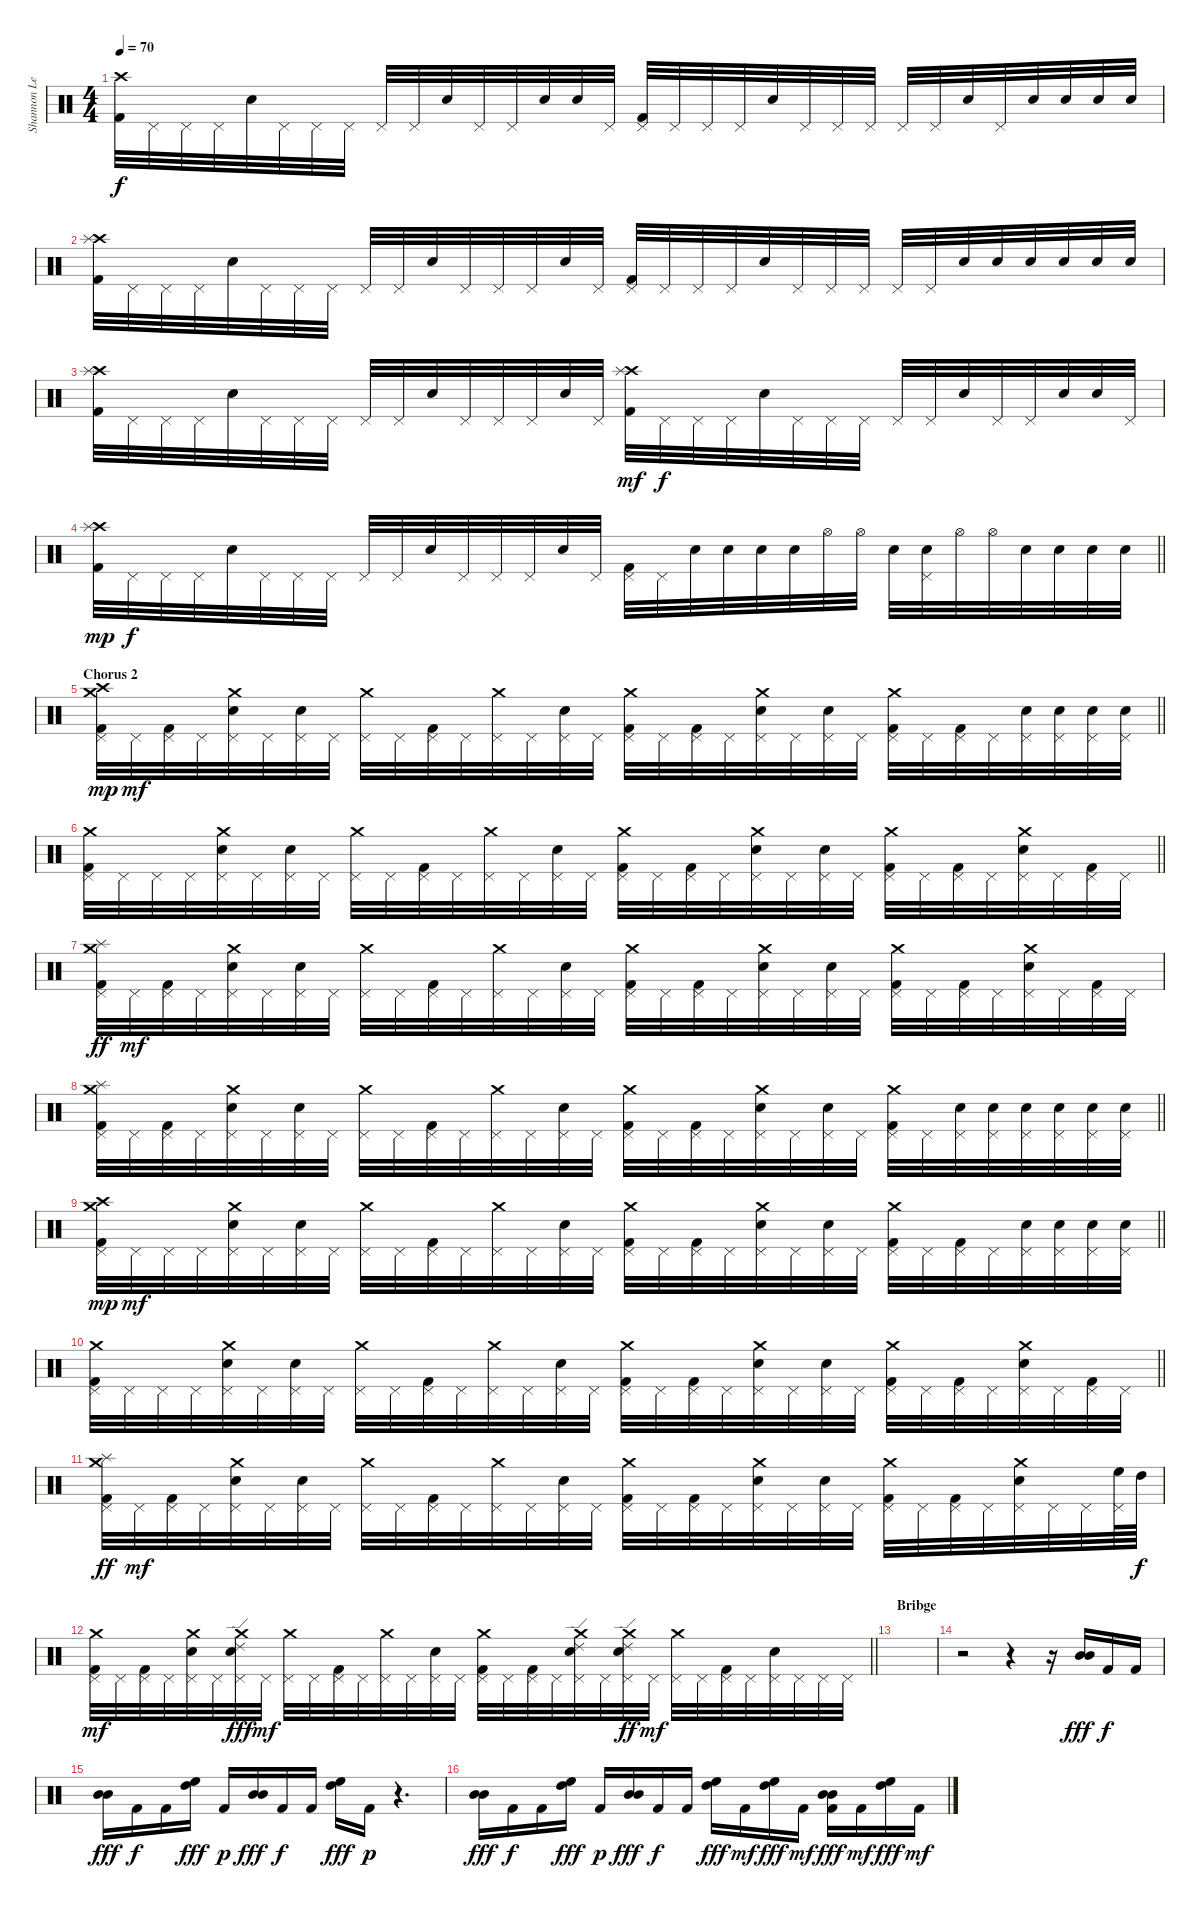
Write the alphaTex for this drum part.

\track ("Shannon Leto - Drums" "Shannon Le") {instrument percussion}
\staff {score}
\articulation defaults
\ts (4 4)
\tempo 70
\clef neutral
\ks c
("Crash high (hit)" "Kick (hit) 2").32{dy f} "Pedal Hi-Hat (hit)".32 "Pedal Hi-Hat (hit)".32 "Pedal Hi-Hat (hit)".32 "Electric Snare (hit)".32 "Pedal Hi-Hat (hit)".32 "Pedal Hi-Hat (hit)".32 "Pedal Hi-Hat (hit)".32 "Pedal Hi-Hat (hit)".32 "Pedal Hi-Hat (hit)".32 "Electric Snare (hit)".32 "Pedal Hi-Hat (hit)".32 "Pedal Hi-Hat (hit)".32 "Electric Snare (hit)".32 "Electric Snare (hit)".32 "Pedal Hi-Hat (hit)".32 ("Pedal Hi-Hat (hit)" "Kick (hit) 2").32 "Pedal Hi-Hat (hit)".32 "Pedal Hi-Hat (hit)".32 "Pedal Hi-Hat (hit)".32 "Electric Snare (hit)".32 "Pedal Hi-Hat (hit)".32 "Pedal Hi-Hat (hit)".32 "Pedal Hi-Hat (hit)".32 "Pedal Hi-Hat (hit)".32 "Pedal Hi-Hat (hit)".32 "Electric Snare (hit)".32 "Pedal Hi-Hat (hit)".32 "Electric Snare (hit)".32 "Electric Snare (hit)".32 "Electric Snare (hit)".32 "Electric Snare (hit)".32 |
("Crash high (hit)" "Splash (hit)" "Kick (hit) 2").32 "Pedal Hi-Hat (hit)".32 "Pedal Hi-Hat (hit)".32 "Pedal Hi-Hat (hit)".32 "Electric Snare (hit)".32 "Pedal Hi-Hat (hit)".32 "Pedal Hi-Hat (hit)".32 "Pedal Hi-Hat (hit)".32 "Pedal Hi-Hat (hit)".32 "Pedal Hi-Hat (hit)".32 "Electric Snare (hit)".32 "Pedal Hi-Hat (hit)".32 "Pedal Hi-Hat (hit)".32 "Pedal Hi-Hat (hit)".32 "Electric Snare (hit)".32 "Pedal Hi-Hat (hit)".32 ("Pedal Hi-Hat (hit)" "Kick (hit) 2").32 "Pedal Hi-Hat (hit)".32 "Pedal Hi-Hat (hit)".32 "Pedal Hi-Hat (hit)".32 "Electric Snare (hit)".32 "Pedal Hi-Hat (hit)".32 "Pedal Hi-Hat (hit)".32 "Pedal Hi-Hat (hit)".32 "Pedal Hi-Hat (hit)".32 "Pedal Hi-Hat (hit)".32 "Electric Snare (hit)".32 "Electric Snare (hit)".32 "Electric Snare (hit)".32 "Electric Snare (hit)".32 "Electric Snare (hit)".32 "Electric Snare (hit)".32 |
("Crash high (hit)" "Splash (hit)" "Kick (hit) 2").32 "Pedal Hi-Hat (hit)".32 "Pedal Hi-Hat (hit)".32 "Pedal Hi-Hat (hit)".32 "Electric Snare (hit)".32 "Pedal Hi-Hat (hit)".32 "Pedal Hi-Hat (hit)".32 "Pedal Hi-Hat (hit)".32 "Pedal Hi-Hat (hit)".32 "Pedal Hi-Hat (hit)".32 "Electric Snare (hit)".32 "Pedal Hi-Hat (hit)".32 "Pedal Hi-Hat (hit)".32 "Pedal Hi-Hat (hit)".32 "Electric Snare (hit)".32 "Pedal Hi-Hat (hit)".32 ("Crash high (hit)" "Splash (hit)" "Kick (hit) 2").32{dy mf} "Pedal Hi-Hat (hit)".32{dy f} "Pedal Hi-Hat (hit)".32 "Pedal Hi-Hat (hit)".32 "Electric Snare (hit)".32 "Pedal Hi-Hat (hit)".32 "Pedal Hi-Hat (hit)".32 "Pedal Hi-Hat (hit)".32 "Pedal Hi-Hat (hit)".32 "Pedal Hi-Hat (hit)".32 "Electric Snare (hit)".32 "Pedal Hi-Hat (hit)".32 "Pedal Hi-Hat (hit)".32 "Electric Snare (hit)".32 "Electric Snare (hit)".32 "Pedal Hi-Hat (hit)".32 |
\barLineRight lightlight
("Crash high (hit)" "Splash (hit)" "Kick (hit) 2").32{dy mp} "Pedal Hi-Hat (hit)".32{dy f} "Pedal Hi-Hat (hit)".32 "Pedal Hi-Hat (hit)".32 "Electric Snare (hit)".32 "Pedal Hi-Hat (hit)".32 "Pedal Hi-Hat (hit)".32 "Pedal Hi-Hat (hit)".32 "Pedal Hi-Hat (hit)".32 "Pedal Hi-Hat (hit)".32 "Electric Snare (hit)".32 "Pedal Hi-Hat (hit)".32 "Pedal Hi-Hat (hit)".32 "Pedal Hi-Hat (hit)".32 "Electric Snare (hit)".32 "Pedal Hi-Hat (hit)".32 ("Pedal Hi-Hat (hit)" "Kick (hit) 2").32 "Pedal Hi-Hat (hit)".32 "Electric Snare (hit)".32 "Electric Snare (hit)".32 "Electric Snare (hit)".32 "Electric Snare (hit)".32 "Hi-Hat (open)".32 "Hi-Hat (open)".32 "Electric Snare (hit)".32 ("Pedal Hi-Hat (hit)" "Electric Snare (hit)").32 "Hi-Hat (open)".32 "Hi-Hat (open)".32 "Electric Snare (hit)".32 "Electric Snare (hit)".32 "Electric Snare (hit)".32 "Electric Snare (hit)".32 |
\section ("" "Chorus 2")
\barLineRight lightlight
("Crash medium (hit)" "Pedal Hi-Hat (hit)" "Crash high (hit)" "Kick (hit) 2").32{dy mp} "Pedal Hi-Hat (hit)".32{dy mf} ("Pedal Hi-Hat (hit)" "Kick (hit) 2").32 "Pedal Hi-Hat (hit)".32 ("Crash medium (hit)" "Pedal Hi-Hat (hit)" "Electric Snare (hit)").32 "Pedal Hi-Hat (hit)".32 ("Pedal Hi-Hat (hit)" "Electric Snare (hit)").32 "Pedal Hi-Hat (hit)".32 ("Crash medium (hit)" "Pedal Hi-Hat (hit)").32 "Pedal Hi-Hat (hit)".32 ("Pedal Hi-Hat (hit)" "Kick (hit) 2").32 "Pedal Hi-Hat (hit)".32 ("Crash medium (hit)" "Pedal Hi-Hat (hit)").32 "Pedal Hi-Hat (hit)".32 ("Pedal Hi-Hat (hit)" "Electric Snare (hit)").32 "Pedal Hi-Hat (hit)".32 ("Crash medium (hit)" "Pedal Hi-Hat (hit)" "Kick (hit) 2").32 "Pedal Hi-Hat (hit)".32 ("Pedal Hi-Hat (hit)" "Kick (hit) 2").32 "Pedal Hi-Hat (hit)".32 ("Crash medium (hit)" "Pedal Hi-Hat (hit)" "Electric Snare (hit)").32 "Pedal Hi-Hat (hit)".32 ("Pedal Hi-Hat (hit)" "Electric Snare (hit)").32 "Pedal Hi-Hat (hit)".32 ("Crash medium (hit)" "Pedal Hi-Hat (hit)" "Kick (hit) 2").32 "Pedal Hi-Hat (hit)".32 ("Pedal Hi-Hat (hit)" "Kick (hit) 2").32 "Pedal Hi-Hat (hit)".32 ("Pedal Hi-Hat (hit)" "Electric Snare (hit)").32 ("Pedal Hi-Hat (hit)" "Electric Snare (hit)").32 ("Pedal Hi-Hat (hit)" "Electric Snare (hit)").32 ("Pedal Hi-Hat (hit)" "Electric Snare (hit)").32 |
\barLineRight lightlight
("Crash medium (hit)" "Pedal Hi-Hat (hit)" "Kick (hit) 2").32 "Pedal Hi-Hat (hit)".32 "Pedal Hi-Hat (hit)".32 "Pedal Hi-Hat (hit)".32 ("Crash medium (hit)" "Pedal Hi-Hat (hit)" "Electric Snare (hit)").32 "Pedal Hi-Hat (hit)".32 ("Pedal Hi-Hat (hit)" "Electric Snare (hit)").32 "Pedal Hi-Hat (hit)".32 ("Crash medium (hit)" "Pedal Hi-Hat (hit)").32 "Pedal Hi-Hat (hit)".32 ("Pedal Hi-Hat (hit)" "Kick (hit) 2").32 "Pedal Hi-Hat (hit)".32 ("Crash medium (hit)" "Pedal Hi-Hat (hit)").32 "Pedal Hi-Hat (hit)".32 ("Pedal Hi-Hat (hit)" "Electric Snare (hit)").32 "Pedal Hi-Hat (hit)".32 ("Crash medium (hit)" "Pedal Hi-Hat (hit)" "Kick (hit) 2").32 "Pedal Hi-Hat (hit)".32 ("Pedal Hi-Hat (hit)" "Kick (hit) 2").32 "Pedal Hi-Hat (hit)".32 ("Crash medium (hit)" "Pedal Hi-Hat (hit)" "Electric Snare (hit)").32 "Pedal Hi-Hat (hit)".32 ("Pedal Hi-Hat (hit)" "Electric Snare (hit)").32 "Pedal Hi-Hat (hit)".32 ("Crash medium (hit)" "Pedal Hi-Hat (hit)" "Kick (hit) 2").32 "Pedal Hi-Hat (hit)".32 ("Pedal Hi-Hat (hit)" "Kick (hit) 2").32 "Pedal Hi-Hat (hit)".32 ("Crash medium (hit)" "Pedal Hi-Hat (hit)" "Electric Snare (hit)").32 "Pedal Hi-Hat (hit)".32 ("Pedal Hi-Hat (hit)" "Kick (hit) 2").32 "Pedal Hi-Hat (hit)".32 |
("Crash medium (hit)" "Pedal Hi-Hat (hit)" "Splash (hit)" "Kick (hit) 2").32{dy ff} "Pedal Hi-Hat (hit)".32{dy mf} ("Pedal Hi-Hat (hit)" "Kick (hit) 2").32 "Pedal Hi-Hat (hit)".32 ("Crash medium (hit)" "Pedal Hi-Hat (hit)" "Electric Snare (hit)").32 "Pedal Hi-Hat (hit)".32 ("Pedal Hi-Hat (hit)" "Electric Snare (hit)").32 "Pedal Hi-Hat (hit)".32 ("Crash medium (hit)" "Pedal Hi-Hat (hit)").32 "Pedal Hi-Hat (hit)".32 ("Pedal Hi-Hat (hit)" "Kick (hit) 2").32 "Pedal Hi-Hat (hit)".32 ("Crash medium (hit)" "Pedal Hi-Hat (hit)").32 "Pedal Hi-Hat (hit)".32 ("Pedal Hi-Hat (hit)" "Electric Snare (hit)").32 "Pedal Hi-Hat (hit)".32 ("Crash medium (hit)" "Pedal Hi-Hat (hit)" "Kick (hit) 2").32 "Pedal Hi-Hat (hit)".32 ("Pedal Hi-Hat (hit)" "Kick (hit) 2").32 "Pedal Hi-Hat (hit)".32 ("Crash medium (hit)" "Pedal Hi-Hat (hit)" "Electric Snare (hit)").32 "Pedal Hi-Hat (hit)".32 ("Pedal Hi-Hat (hit)" "Electric Snare (hit)").32 "Pedal Hi-Hat (hit)".32 ("Crash medium (hit)" "Pedal Hi-Hat (hit)" "Kick (hit) 2").32 "Pedal Hi-Hat (hit)".32 ("Pedal Hi-Hat (hit)" "Kick (hit) 2").32 "Pedal Hi-Hat (hit)".32 ("Crash medium (hit)" "Pedal Hi-Hat (hit)" "Electric Snare (hit)").32 "Pedal Hi-Hat (hit)".32 ("Pedal Hi-Hat (hit)" "Kick (hit) 2").32 "Pedal Hi-Hat (hit)".32 |
\barLineRight lightlight
("Crash medium (hit)" "Pedal Hi-Hat (hit)" "Splash (hit)" "Kick (hit) 2").32 "Pedal Hi-Hat (hit)".32 ("Pedal Hi-Hat (hit)" "Kick (hit) 2").32 "Pedal Hi-Hat (hit)".32 ("Crash medium (hit)" "Pedal Hi-Hat (hit)" "Electric Snare (hit)").32 "Pedal Hi-Hat (hit)".32 ("Pedal Hi-Hat (hit)" "Electric Snare (hit)").32 "Pedal Hi-Hat (hit)".32 ("Crash medium (hit)" "Pedal Hi-Hat (hit)").32 "Pedal Hi-Hat (hit)".32 ("Pedal Hi-Hat (hit)" "Kick (hit) 2").32 "Pedal Hi-Hat (hit)".32 ("Crash medium (hit)" "Pedal Hi-Hat (hit)").32 "Pedal Hi-Hat (hit)".32 ("Pedal Hi-Hat (hit)" "Electric Snare (hit)").32 "Pedal Hi-Hat (hit)".32 ("Crash medium (hit)" "Pedal Hi-Hat (hit)" "Kick (hit) 2").32 "Pedal Hi-Hat (hit)".32 ("Pedal Hi-Hat (hit)" "Kick (hit) 2").32 "Pedal Hi-Hat (hit)".32 ("Crash medium (hit)" "Pedal Hi-Hat (hit)" "Electric Snare (hit)").32 "Pedal Hi-Hat (hit)".32 ("Pedal Hi-Hat (hit)" "Electric Snare (hit)").32 "Pedal Hi-Hat (hit)".32 ("Crash medium (hit)" "Pedal Hi-Hat (hit)" "Kick (hit) 2").32 "Pedal Hi-Hat (hit)".32 ("Pedal Hi-Hat (hit)" "Electric Snare (hit)").32 ("Pedal Hi-Hat (hit)" "Electric Snare (hit)").32 ("Pedal Hi-Hat (hit)" "Electric Snare (hit)").32 ("Pedal Hi-Hat (hit)" "Electric Snare (hit)").32 ("Pedal Hi-Hat (hit)" "Electric Snare (hit)").32 ("Pedal Hi-Hat (hit)" "Electric Snare (hit)").32 |
\barLineRight lightlight
("Crash medium (hit)" "Pedal Hi-Hat (hit)" "Crash high (hit)" "Kick (hit) 2").32{dy mp} "Pedal Hi-Hat (hit)".32{dy mf} "Pedal Hi-Hat (hit)".32 "Pedal Hi-Hat (hit)".32 ("Crash medium (hit)" "Pedal Hi-Hat (hit)" "Electric Snare (hit)").32 "Pedal Hi-Hat (hit)".32 ("Pedal Hi-Hat (hit)" "Electric Snare (hit)").32 "Pedal Hi-Hat (hit)".32 ("Crash medium (hit)" "Pedal Hi-Hat (hit)").32 "Pedal Hi-Hat (hit)".32 ("Pedal Hi-Hat (hit)" "Kick (hit) 2").32 "Pedal Hi-Hat (hit)".32 ("Crash medium (hit)" "Pedal Hi-Hat (hit)").32 "Pedal Hi-Hat (hit)".32 ("Pedal Hi-Hat (hit)" "Electric Snare (hit)").32 "Pedal Hi-Hat (hit)".32 ("Crash medium (hit)" "Pedal Hi-Hat (hit)" "Kick (hit) 2").32 "Pedal Hi-Hat (hit)".32 ("Pedal Hi-Hat (hit)" "Kick (hit) 2").32 "Pedal Hi-Hat (hit)".32 ("Crash medium (hit)" "Pedal Hi-Hat (hit)" "Electric Snare (hit)").32 "Pedal Hi-Hat (hit)".32 ("Pedal Hi-Hat (hit)" "Electric Snare (hit)").32 "Pedal Hi-Hat (hit)".32 ("Crash medium (hit)" "Pedal Hi-Hat (hit)" "Kick (hit) 2").32 "Pedal Hi-Hat (hit)".32 ("Pedal Hi-Hat (hit)" "Kick (hit) 2").32 "Pedal Hi-Hat (hit)".32 ("Pedal Hi-Hat (hit)" "Electric Snare (hit)").32 ("Pedal Hi-Hat (hit)" "Electric Snare (hit)").32 ("Pedal Hi-Hat (hit)" "Electric Snare (hit)").32 ("Pedal Hi-Hat (hit)" "Electric Snare (hit)").32 |
\barLineRight lightlight
("Crash medium (hit)" "Pedal Hi-Hat (hit)" "Kick (hit) 2").32 "Pedal Hi-Hat (hit)".32 "Pedal Hi-Hat (hit)".32 "Pedal Hi-Hat (hit)".32 ("Crash medium (hit)" "Pedal Hi-Hat (hit)" "Electric Snare (hit)").32 "Pedal Hi-Hat (hit)".32 ("Pedal Hi-Hat (hit)" "Electric Snare (hit)").32 "Pedal Hi-Hat (hit)".32 ("Crash medium (hit)" "Pedal Hi-Hat (hit)").32 "Pedal Hi-Hat (hit)".32 ("Pedal Hi-Hat (hit)" "Kick (hit) 2").32 "Pedal Hi-Hat (hit)".32 ("Crash medium (hit)" "Pedal Hi-Hat (hit)").32 "Pedal Hi-Hat (hit)".32 ("Pedal Hi-Hat (hit)" "Electric Snare (hit)").32 "Pedal Hi-Hat (hit)".32 ("Crash medium (hit)" "Pedal Hi-Hat (hit)" "Kick (hit) 2").32 "Pedal Hi-Hat (hit)".32 ("Pedal Hi-Hat (hit)" "Kick (hit) 2").32 "Pedal Hi-Hat (hit)".32 ("Crash medium (hit)" "Pedal Hi-Hat (hit)" "Electric Snare (hit)").32 "Pedal Hi-Hat (hit)".32 ("Pedal Hi-Hat (hit)" "Electric Snare (hit)").32 "Pedal Hi-Hat (hit)".32 ("Crash medium (hit)" "Pedal Hi-Hat (hit)" "Kick (hit) 2").32 "Pedal Hi-Hat (hit)".32 ("Pedal Hi-Hat (hit)" "Kick (hit) 2").32 "Pedal Hi-Hat (hit)".32 ("Crash medium (hit)" "Pedal Hi-Hat (hit)" "Electric Snare (hit)").32 "Pedal Hi-Hat (hit)".32 ("Pedal Hi-Hat (hit)" "Kick (hit) 2").32 "Pedal Hi-Hat (hit)".32 |
("Crash medium (hit)" "Pedal Hi-Hat (hit)" "Splash (hit)" "Kick (hit) 2").32{dy ff} "Pedal Hi-Hat (hit)".32{dy mf} ("Pedal Hi-Hat (hit)" "Kick (hit) 2").32 "Pedal Hi-Hat (hit)".32 ("Crash medium (hit)" "Pedal Hi-Hat (hit)" "Electric Snare (hit)").32 "Pedal Hi-Hat (hit)".32 ("Pedal Hi-Hat (hit)" "Electric Snare (hit)").32 "Pedal Hi-Hat (hit)".32 ("Crash medium (hit)" "Pedal Hi-Hat (hit)").32 "Pedal Hi-Hat (hit)".32 ("Pedal Hi-Hat (hit)" "Kick (hit) 2").32 "Pedal Hi-Hat (hit)".32 ("Crash medium (hit)" "Pedal Hi-Hat (hit)").32 "Pedal Hi-Hat (hit)".32 ("Pedal Hi-Hat (hit)" "Electric Snare (hit)").32 "Pedal Hi-Hat (hit)".32 ("Crash medium (hit)" "Pedal Hi-Hat (hit)" "Kick (hit) 2").32 "Pedal Hi-Hat (hit)".32 ("Pedal Hi-Hat (hit)" "Kick (hit) 2").32 "Pedal Hi-Hat (hit)".32 ("Crash medium (hit)" "Pedal Hi-Hat (hit)" "Electric Snare (hit)").32 "Pedal Hi-Hat (hit)".32 ("Pedal Hi-Hat (hit)" "Electric Snare (hit)").32 "Pedal Hi-Hat (hit)".32 ("Crash medium (hit)" "Pedal Hi-Hat (hit)" "Kick (hit) 2").32 "Pedal Hi-Hat (hit)".32 ("Pedal Hi-Hat (hit)" "Kick (hit) 2").32 "Pedal Hi-Hat (hit)".32 ("Crash medium (hit)" "Pedal Hi-Hat (hit)" "Electric Snare (hit)").32 "Pedal Hi-Hat (hit)".32 "Pedal Hi-Hat (hit)".32 ("Pedal Hi-Hat (hit)" "High Floor Tom (hit)").64 "High Tom (hit)".64{dy f} |
\barLineRight lightlight
("Crash medium (hit)" "Pedal Hi-Hat (hit)" "Kick (hit) 2").32{dy mf} "Pedal Hi-Hat (hit)".32 ("Pedal Hi-Hat (hit)" "Kick (hit) 2").32 "Pedal Hi-Hat (hit)".32 ("Crash medium (hit)" "Pedal Hi-Hat (hit)" "Electric Snare (hit)").32 "Pedal Hi-Hat (hit)".32 ("Crash medium (hit)" "Pedal Hi-Hat (hit)" "Electric Snare (hit)" "Ride (edge) 2").32{dy fff} "Pedal Hi-Hat (hit)".32{dy mf} ("Crash medium (hit)" "Pedal Hi-Hat (hit)").32 "Pedal Hi-Hat (hit)".32 ("Pedal Hi-Hat (hit)" "Kick (hit) 2").32 "Pedal Hi-Hat (hit)".32 ("Crash medium (hit)" "Pedal Hi-Hat (hit)").32 "Pedal Hi-Hat (hit)".32 ("Pedal Hi-Hat (hit)" "Electric Snare (hit)").32 "Pedal Hi-Hat (hit)".32 ("Crash medium (hit)" "Pedal Hi-Hat (hit)" "Kick (hit) 2").32 "Pedal Hi-Hat (hit)".32 ("Pedal Hi-Hat (hit)" "Kick (hit) 2").32 "Pedal Hi-Hat (hit)".32 ("Crash medium (hit)" "Pedal Hi-Hat (hit)" "Electric Snare (hit)" "Ride (edge) 2").32 "Pedal Hi-Hat (hit)".32 ("Crash medium (hit)" "Pedal Hi-Hat (hit)" "Electric Snare (hit)" "Ride (edge) 2").32{dy ff} "Pedal Hi-Hat (hit)".32{dy mf} ("Crash medium (hit)" "Pedal Hi-Hat (hit)").32 "Pedal Hi-Hat (hit)".32 ("Pedal Hi-Hat (hit)" "Kick (hit) 2").32 "Pedal Hi-Hat (hit)".32 ("Pedal Hi-Hat (hit)" "Electric Snare (hit)").32 "Pedal Hi-Hat (hit)".32 "Pedal Hi-Hat (hit)".32 "Pedal Hi-Hat (hit)".32 |
\section ("" "Bribge")
|
r.2 r.4 r.16 ("Mid Tom (hit)" "Mid Tom (hit)").16{bd 120 dy fff} "Kick (hit) 2".16{dy f} "Kick (hit) 2".16 |
("Mid Tom (hit)" "Mid Tom (hit)").16{bd 30 dy fff} "Kick (hit) 2".16{dy f} "Kick (hit) 2".16 ("High Floor Tom (hit)" "High Tom (hit)").16{bd 120 dy fff} "Kick (hit) 2".16{dy p} ("Mid Tom (hit)" "Mid Tom (hit)").16{bd 30 dy fff} "Kick (hit) 2".16{dy f} "Kick (hit) 2".16 ("High Floor Tom (hit)" "High Tom (hit)").16{bd 120 dy fff} "Kick (hit) 2".16{dy p} r.4{d} |
("Mid Tom (hit)" "Mid Tom (hit)").16{bd 30 dy fff} "Kick (hit) 2".16{dy f} "Kick (hit) 2".16 ("High Floor Tom (hit)" "High Tom (hit)").16{bd 120 dy fff} "Kick (hit) 2".16{dy p} ("Mid Tom (hit)" "Mid Tom (hit)").16{bd 30 dy fff} "Kick (hit) 2".16{dy f} "Kick (hit) 2".16 ("High Floor Tom (hit)" "High Tom (hit)").16{bd 120 dy fff} "Kick (hit) 2".16{dy mf} ("High Floor Tom (hit)" "High Tom (hit)").16{bd 120 dy fff} "Kick (hit) 2".16{dy mf} ("Mid Tom (hit)" "Mid Tom (hit)" "Kick (hit) 2").16{bd 30 dy fff} "Kick (hit) 2".16{dy mf} ("High Floor Tom (hit)" "High Tom (hit)").16{bd 120 dy fff} "Kick (hit) 2".16{dy mf}
